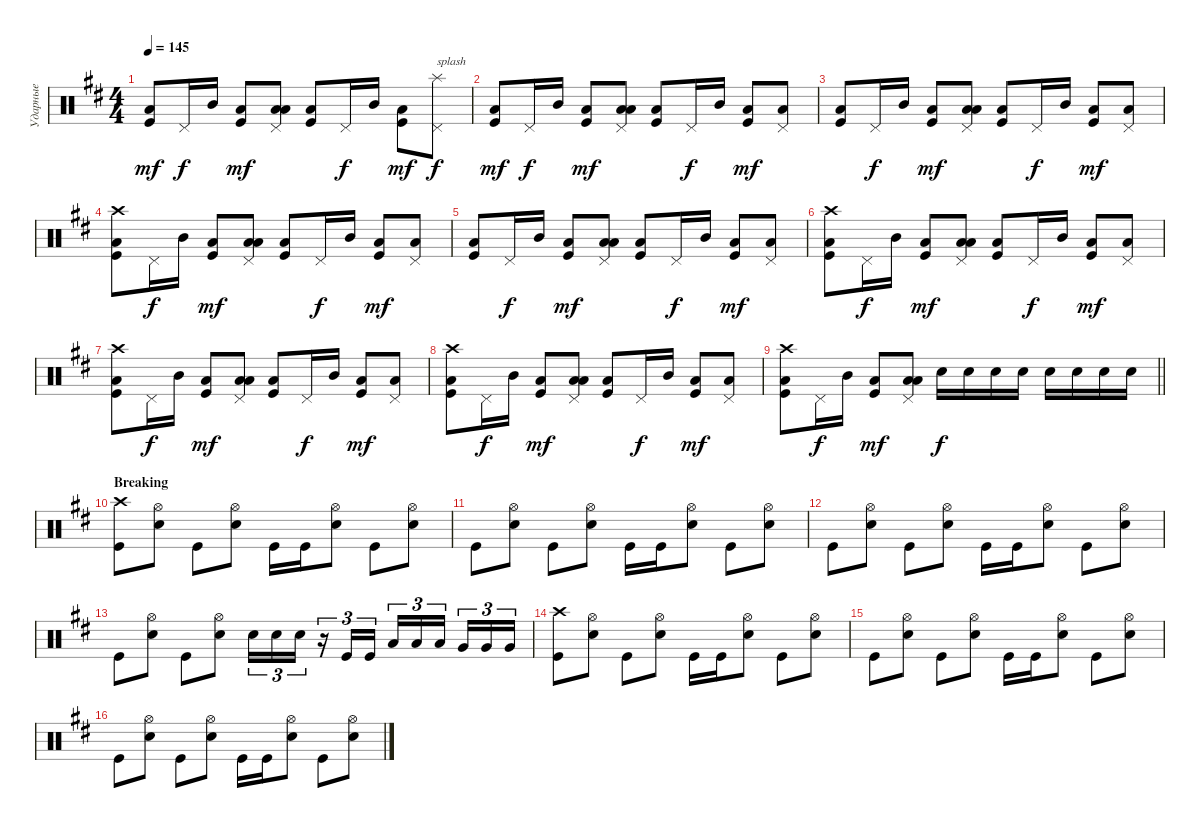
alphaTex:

\track ("Ударные" "Ударные") {instrument percussion}
\staff {score}
\articulation defaults
\ts (4 4)
\tempo 145
\clef neutral
\ks bminor
("Kick (hit)" "Low Floor Tom (hit)").8{bd 120 dy mf} "Pedal Hi-Hat (hit)".16{dy f} "Mid Tom (hit)".16 ("Kick (hit)" "Low Floor Tom (hit)").8{bd 120 dy mf} ("Pedal Hi-Hat (hit)" "Low Tom (hit)" "Low Floor Tom (hit)").8{bd 120} ("Kick (hit)" "Low Floor Tom (hit)").8{bd 120} "Pedal Hi-Hat (hit)".16{dy f} "Mid Tom (hit)".16 ("Kick (hit)" "Low Floor Tom (hit)").8{bd 120 dy mf} ("Pedal Hi-Hat (hit)" "Splash (hit)").8{txt "splash" dy f} |
("Kick (hit)" "Low Floor Tom (hit)").8{bd 120 dy mf} "Pedal Hi-Hat (hit)".16{dy f} "Mid Tom (hit)".16 ("Kick (hit)" "Low Floor Tom (hit)").8{bd 120 dy mf} ("Pedal Hi-Hat (hit)" "Low Tom (hit)" "Low Floor Tom (hit)").8{bd 120} ("Kick (hit)" "Low Floor Tom (hit)").8{bd 120} "Pedal Hi-Hat (hit)".16{dy f} "Mid Tom (hit)".16 ("Kick (hit)" "Low Floor Tom (hit)").8{bd 120 dy mf} ("Pedal Hi-Hat (hit)" "Low Floor Tom (hit)").8 |
("Kick (hit)" "Low Floor Tom (hit)").8{bd 120} "Pedal Hi-Hat (hit)".16{dy f} "Mid Tom (hit)".16 ("Kick (hit)" "Low Floor Tom (hit)").8{bd 120 dy mf} ("Pedal Hi-Hat (hit)" "Low Tom (hit)" "Low Floor Tom (hit)").8{bd 120} ("Kick (hit)" "Low Floor Tom (hit)").8{bd 120} "Pedal Hi-Hat (hit)".16{dy f} "Mid Tom (hit)".16 ("Kick (hit)" "Low Floor Tom (hit)").8{bd 120 dy mf} ("Pedal Hi-Hat (hit)" "Low Floor Tom (hit)").8 |
("Kick (hit)" "Low Floor Tom (hit)" "Crash high (hit)").8{bd 120} "Pedal Hi-Hat (hit)".16{dy f} "Mid Tom (hit)".16 ("Kick (hit)" "Low Floor Tom (hit)").8{bd 120 dy mf} ("Pedal Hi-Hat (hit)" "Low Tom (hit)" "Low Floor Tom (hit)").8{bd 120} ("Kick (hit)" "Low Floor Tom (hit)").8{bd 120} "Pedal Hi-Hat (hit)".16{dy f} "Mid Tom (hit)".16 ("Kick (hit)" "Low Floor Tom (hit)").8{bd 120 dy mf} ("Pedal Hi-Hat (hit)" "Low Floor Tom (hit)").8 |
("Kick (hit)" "Low Floor Tom (hit)").8{bd 120} "Pedal Hi-Hat (hit)".16{dy f} "Mid Tom (hit)".16 ("Kick (hit)" "Low Floor Tom (hit)").8{bd 120 dy mf} ("Pedal Hi-Hat (hit)" "Low Tom (hit)" "Low Floor Tom (hit)").8{bd 120} ("Kick (hit)" "Low Floor Tom (hit)").8{bd 120} "Pedal Hi-Hat (hit)".16{dy f} "Mid Tom (hit)".16 ("Kick (hit)" "Low Floor Tom (hit)").8{bd 120 dy mf} ("Pedal Hi-Hat (hit)" "Low Floor Tom (hit)").8 |
("Kick (hit)" "Low Floor Tom (hit)" "Crash high (hit)").8{bd 120} "Pedal Hi-Hat (hit)".16{dy f} "Mid Tom (hit)".16 ("Kick (hit)" "Low Floor Tom (hit)").8{bd 120 dy mf} ("Pedal Hi-Hat (hit)" "Low Tom (hit)" "Low Floor Tom (hit)").8{bd 120} ("Kick (hit)" "Low Floor Tom (hit)").8{bd 120} "Pedal Hi-Hat (hit)".16{dy f} "Mid Tom (hit)".16 ("Kick (hit)" "Low Floor Tom (hit)").8{bd 120 dy mf} ("Pedal Hi-Hat (hit)" "Low Floor Tom (hit)").8 |
("Kick (hit)" "Low Floor Tom (hit)" "Crash high (hit)").8{bd 120} "Pedal Hi-Hat (hit)".16{dy f} "Mid Tom (hit)".16 ("Kick (hit)" "Low Floor Tom (hit)").8{bd 120 dy mf} ("Pedal Hi-Hat (hit)" "Low Tom (hit)" "Low Floor Tom (hit)").8{bd 120} ("Kick (hit)" "Low Floor Tom (hit)").8{bd 120} "Pedal Hi-Hat (hit)".16{dy f} "Mid Tom (hit)".16 ("Kick (hit)" "Low Floor Tom (hit)").8{bd 120 dy mf} ("Pedal Hi-Hat (hit)" "Low Floor Tom (hit)").8 |
("Kick (hit)" "Low Floor Tom (hit)" "Crash high (hit)").8{bd 120} "Pedal Hi-Hat (hit)".16{dy f} "Mid Tom (hit)".16 ("Kick (hit)" "Low Floor Tom (hit)").8{bd 120 dy mf} ("Pedal Hi-Hat (hit)" "Low Tom (hit)" "Low Floor Tom (hit)").8{bd 120} ("Kick (hit)" "Low Floor Tom (hit)").8{bd 120} "Pedal Hi-Hat (hit)".16{dy f} "Mid Tom (hit)".16 ("Kick (hit)" "Low Floor Tom (hit)").8{bd 120 dy mf} ("Pedal Hi-Hat (hit)" "Low Floor Tom (hit)").8 |
\barLineRight lightlight
("Kick (hit)" "Low Floor Tom (hit)" "Crash high (hit)").8{bd 120} "Pedal Hi-Hat (hit)".16{dy f} "Mid Tom (hit)".16 ("Kick (hit)" "Low Floor Tom (hit)").8{bd 120 dy mf} ("Pedal Hi-Hat (hit)" "Low Tom (hit)" "Low Floor Tom (hit)").8{bd 120} "Snare (hit) 2".16{dy f} "Snare (hit) 2".16 "Snare (hit) 2".16 "Snare (hit) 2".16 "Snare (hit) 2".16 "Snare (hit) 2".16 "Snare (hit) 2".16 "Snare (hit) 2".16 |
\section ("" "Breaking")
("Kick (hit)" "Crash high (hit)").8 ("Snare (hit) 2" "Hi-Hat (open)").8 "Kick (hit)".8 ("Snare (hit) 2" "Hi-Hat (open)").8 "Kick (hit)".16 "Kick (hit)".16 ("Snare (hit) 2" "Hi-Hat (open)").8 "Kick (hit)".8 ("Snare (hit) 2" "Hi-Hat (open)").8 |
"Kick (hit)".8 ("Snare (hit) 2" "Hi-Hat (open)").8 "Kick (hit)".8 ("Snare (hit) 2" "Hi-Hat (open)").8 "Kick (hit)".16 "Kick (hit)".16 ("Snare (hit) 2" "Hi-Hat (open)").8 "Kick (hit)".8 ("Snare (hit) 2" "Hi-Hat (open)").8 |
"Kick (hit)".8 ("Snare (hit) 2" "Hi-Hat (open)").8 "Kick (hit)".8 ("Snare (hit) 2" "Hi-Hat (open)").8 "Kick (hit)".16 "Kick (hit)".16 ("Snare (hit) 2" "Hi-Hat (open)").8 "Kick (hit)".8 ("Snare (hit) 2" "Hi-Hat (open)").8 |
"Kick (hit)".8 ("Snare (hit) 2" "Hi-Hat (open)").8 "Kick (hit)".8 ("Snare (hit) 2" "Hi-Hat (open)").8 "Snare (hit) 2".16{tu (3 2)} "Snare (hit) 2".16{tu (3 2)} "Snare (hit) 2".16{tu (3 2)} r.16{tu (3 2)} "Kick (hit)".16{tu (3 2)} "Kick (hit)".16{tu (3 2)} "Low Tom (hit)".16{tu (3 2)} "Low Tom (hit)".16{tu (3 2)} "Low Tom (hit)".16{tu (3 2) beam splitsecondary} "Very Low Tom (hit)".16{tu (3 2)} "Very Low Tom (hit)".16{tu (3 2)} "Very Low Tom (hit)".16{tu (3 2)} |
("Kick (hit)" "Crash high (hit)").8 ("Snare (hit) 2" "Hi-Hat (open)").8 "Kick (hit)".8 ("Snare (hit) 2" "Hi-Hat (open)").8 "Kick (hit)".16 "Kick (hit)".16 ("Snare (hit) 2" "Hi-Hat (open)").8 "Kick (hit)".8 ("Snare (hit) 2" "Hi-Hat (open)").8 |
"Kick (hit)".8 ("Snare (hit) 2" "Hi-Hat (open)").8 "Kick (hit)".8 ("Snare (hit) 2" "Hi-Hat (open)").8 "Kick (hit)".16 "Kick (hit)".16 ("Snare (hit) 2" "Hi-Hat (open)").8 "Kick (hit)".8 ("Snare (hit) 2" "Hi-Hat (open)").8 |
"Kick (hit)".8 ("Snare (hit) 2" "Hi-Hat (open)").8 "Kick (hit)".8 ("Snare (hit) 2" "Hi-Hat (open)").8 "Kick (hit)".16 "Kick (hit)".16 ("Snare (hit) 2" "Hi-Hat (open)").8 "Kick (hit)".8 ("Snare (hit) 2" "Hi-Hat (open)").8
